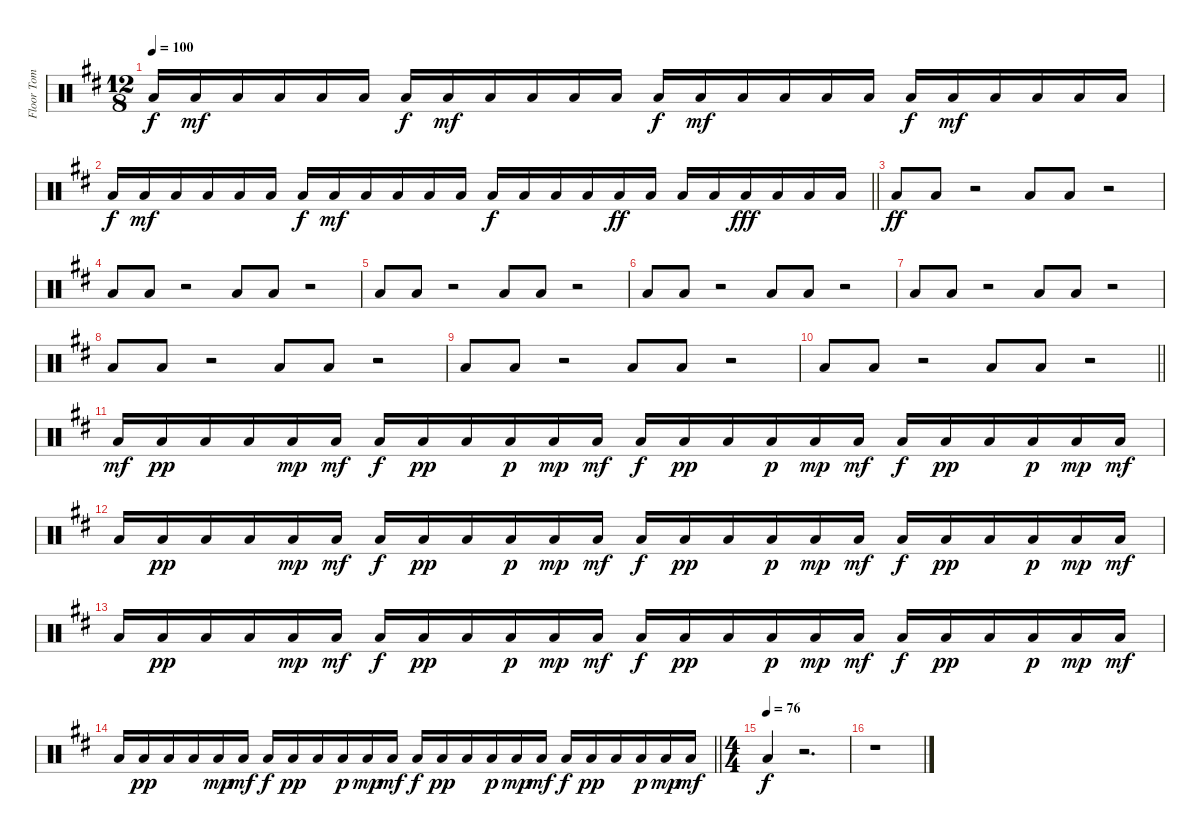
\track ("Floor Tom" "Floor Tom") {instrument percussion}
\staff {score}
\articulation defaults
\ts (12 8)
\tempo 100
\clef neutral
\ks bminor "Low Floor Tom (hit)".16{dy f} "Low Floor Tom (hit)".16{dy mf} "Low Floor Tom (hit)".16 "Low Floor Tom (hit)".16 "Low Floor Tom (hit)".16 "Low Floor Tom (hit)".16 "Low Floor Tom (hit)".16{dy f} "Low Floor Tom (hit)".16{dy mf} "Low Floor Tom (hit)".16 "Low Floor Tom (hit)".16 "Low Floor Tom (hit)".16 "Low Floor Tom (hit)".16 "Low Floor Tom (hit)".16{dy f} "Low Floor Tom (hit)".16{dy mf} "Low Floor Tom (hit)".16 "Low Floor Tom (hit)".16 "Low Floor Tom (hit)".16 "Low Floor Tom (hit)".16 "Low Floor Tom (hit)".16{dy f} "Low Floor Tom (hit)".16{dy mf} "Low Floor Tom (hit)".16 "Low Floor Tom (hit)".16 "Low Floor Tom (hit)".16 "Low Floor Tom (hit)".16
|
\barLineRight lightlight "Low Floor Tom (hit)".16{dy f} "Low Floor Tom (hit)".16{dy mf} "Low Floor Tom (hit)".16 "Low Floor Tom (hit)".16 "Low Floor Tom (hit)".16 "Low Floor Tom (hit)".16 "Low Floor Tom (hit)".16{dy f} "Low Floor Tom (hit)".16{dy mf} "Low Floor Tom (hit)".16 "Low Floor Tom (hit)".16 "Low Floor Tom (hit)".16 "Low Floor Tom (hit)".16 "Low Floor Tom (hit)".16{dy f} "Low Floor Tom (hit)".16 "Low Floor Tom (hit)".16 "Low Floor Tom (hit)".16 "Low Floor Tom (hit)".16{dy ff} "Low Floor Tom (hit)".16 "Low Floor Tom (hit)".16 "Low Floor Tom (hit)".16 "Low Floor Tom (hit)".16{dy fff} "Low Floor Tom (hit)".16 "Low Floor Tom (hit)".16 "Low Floor Tom (hit)".16
|
"Low Floor Tom (hit)".8{dy ff} "Low Floor Tom (hit)".8 r.2 "Low Floor Tom (hit)".8 "Low Floor Tom (hit)".8 r.2 |
"Low Floor Tom (hit)".8 "Low Floor Tom (hit)".8 r.2 "Low Floor Tom (hit)".8 "Low Floor Tom (hit)".8 r.2 |
"Low Floor Tom (hit)".8 "Low Floor Tom (hit)".8 r.2 "Low Floor Tom (hit)".8 "Low Floor Tom (hit)".8 r.2 |
"Low Floor Tom (hit)".8 "Low Floor Tom (hit)".8 r.2 "Low Floor Tom (hit)".8 "Low Floor Tom (hit)".8 r.2 |
"Low Floor Tom (hit)".8 "Low Floor Tom (hit)".8 r.2 "Low Floor Tom (hit)".8 "Low Floor Tom (hit)".8 r.2 |
"Low Floor Tom (hit)".8 "Low Floor Tom (hit)".8 r.2 "Low Floor Tom (hit)".8 "Low Floor Tom (hit)".8 r.2 |
"Low Floor Tom (hit)".8 "Low Floor Tom (hit)".8 r.2 "Low Floor Tom (hit)".8 "Low Floor Tom (hit)".8 r.2 |
\barLineRight lightlight "Low Floor Tom (hit)".8 "Low Floor Tom (hit)".8
r.2 "Low Floor Tom (hit)".8 "Low Floor Tom (hit)".8 r.2 |
"Low Floor Tom (hit)".16{dy mf} "Low Floor Tom (hit)".16{dy pp} "Low Floor Tom (hit)".16 "Low Floor Tom (hit)".16 "Low Floor Tom (hit)".16{dy mp} "Low Floor Tom (hit)".16{dy mf} "Low Floor Tom (hit)".16{dy f} "Low Floor Tom (hit)".16{dy pp} "Low Floor Tom (hit)".16 "Low Floor Tom (hit)".16{dy p} "Low Floor Tom (hit)".16{dy mp} "Low Floor Tom (hit)".16{dy mf} "Low Floor Tom (hit)".16{dy f} "Low Floor Tom (hit)".16{dy pp} "Low Floor Tom (hit)".16 "Low Floor Tom (hit)".16{dy p} "Low Floor Tom (hit)".16{dy mp} "Low Floor Tom (hit)".16{dy mf} "Low Floor Tom (hit)".16{dy f} "Low Floor Tom (hit)".16{dy pp} "Low Floor Tom (hit)".16 "Low Floor Tom (hit)".16{dy p} "Low Floor Tom (hit)".16{dy mp} "Low Floor Tom (hit)".16{dy mf} |
"Low Floor Tom (hit)".16 "Low Floor Tom (hit)".16{dy pp} "Low Floor Tom (hit)".16 "Low Floor Tom (hit)".16 "Low Floor Tom (hit)".16{dy mp} "Low Floor Tom (hit)".16{dy mf} "Low Floor Tom (hit)".16{dy f} "Low Floor Tom (hit)".16{dy pp} "Low Floor Tom (hit)".16 "Low Floor Tom (hit)".16{dy p} "Low Floor Tom (hit)".16{dy mp} "Low Floor Tom (hit)".16{dy mf} "Low Floor Tom (hit)".16{dy f} "Low Floor Tom (hit)".16{dy pp} "Low Floor Tom (hit)".16 "Low Floor Tom (hit)".16{dy p} "Low Floor Tom (hit)".16{dy mp} "Low Floor Tom (hit)".16{dy mf} "Low Floor Tom (hit)".16{dy f} "Low Floor Tom (hit)".16{dy pp} "Low Floor Tom (hit)".16 "Low Floor Tom (hit)".16{dy p} "Low Floor Tom (hit)".16{dy mp} "Low Floor Tom (hit)".16{dy mf} |
"Low Floor Tom (hit)".16 "Low Floor Tom (hit)".16{dy pp} "Low Floor Tom (hit)".16 "Low Floor Tom (hit)".16 "Low Floor Tom (hit)".16{dy mp} "Low Floor Tom (hit)".16{dy mf} "Low Floor Tom (hit)".16{dy f} "Low Floor Tom (hit)".16{dy pp} "Low Floor Tom (hit)".16 "Low Floor Tom (hit)".16{dy p} "Low Floor Tom (hit)".16{dy mp} "Low Floor Tom (hit)".16{dy mf} "Low Floor Tom (hit)".16{dy f} "Low Floor Tom (hit)".16{dy pp} "Low Floor Tom (hit)".16 "Low Floor Tom (hit)".16{dy p} "Low Floor Tom (hit)".16{dy mp} "Low Floor Tom (hit)".16{dy mf} "Low Floor Tom (hit)".16{dy f} "Low Floor Tom (hit)".16{dy pp} "Low Floor Tom (hit)".16 "Low Floor Tom (hit)".16{dy p} "Low Floor Tom (hit)".16{dy mp} "Low Floor Tom (hit)".16{dy mf} |
\barLineRight lightlight "Low Floor Tom (hit)".16 "Low Floor Tom (hit)".16{dy pp} "Low Floor Tom (hit)".16 "Low Floor Tom (hit)".16 "Low Floor Tom (hit)".16{dy mp} "Low Floor Tom (hit)".16{dy mf} "Low Floor Tom (hit)".16{dy f} "Low Floor Tom (hit)".16{dy pp} "Low Floor Tom (hit)".16 "Low Floor Tom (hit)".16{dy p} "Low Floor Tom (hit)".16{dy mp} "Low Floor Tom (hit)".16{dy mf} "Low Floor Tom (hit)".16{dy f} "Low Floor Tom (hit)".16{dy pp} "Low Floor Tom (hit)".16 "Low Floor Tom (hit)".16{dy p} "Low Floor Tom (hit)".16{dy mp} "Low Floor Tom (hit)".16{dy mf} "Low Floor Tom (hit)".16{dy f} "Low Floor Tom (hit)".16{dy pp} "Low Floor Tom (hit)".16 "Low Floor Tom (hit)".16{dy p} "Low Floor Tom (hit)".16{dy mp} "Low Floor Tom (hit)".16{dy mf}
|
\ts (4 4)
\tempo (76)
"Low Floor Tom (hit)".4{dy f} r.2{d} |
r.1
